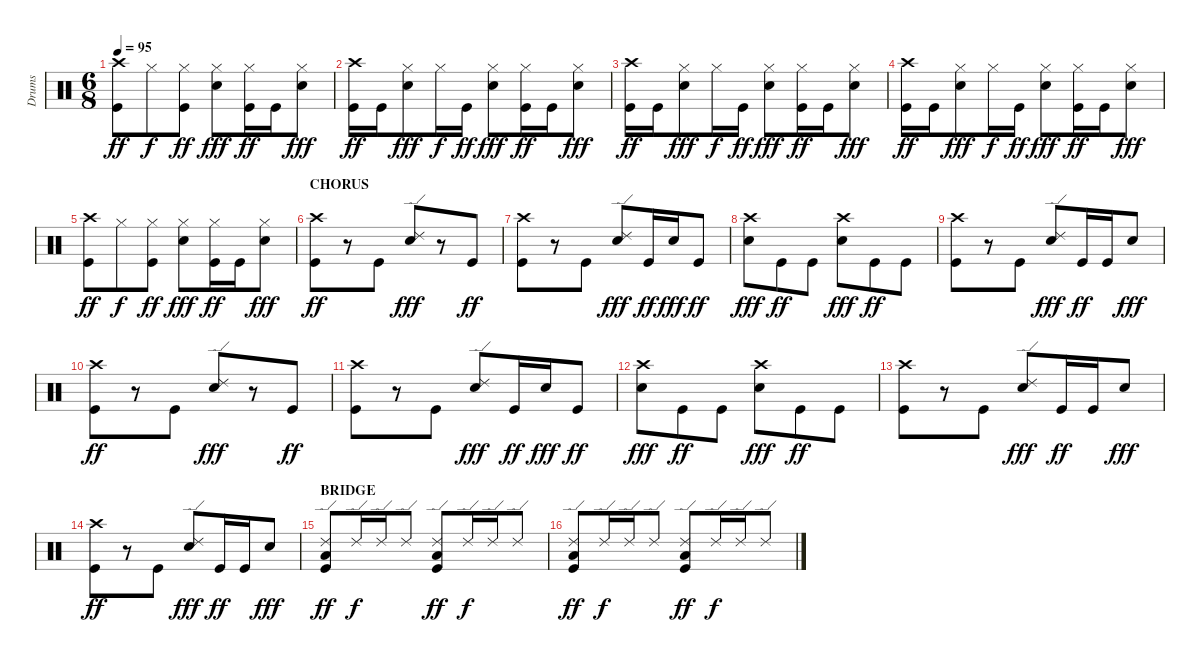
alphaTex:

\track ("Drums" "Drums") {instrument percussion}
\staff {score}
\articulation defaults
\ts (6 8)
\tempo 95
\clef neutral
\ks c
("Crash high (hit)" "Kick (hit)").8{dy ff} "Hi-Hat (closed)".8{dy f} ("Hi-Hat (closed)" "Kick (hit)").8{dy ff} ("Hi-Hat (closed)" "Electric Snare (hit)").8{dy fff} ("Hi-Hat (closed)" "Kick (hit)").16{dy ff} "Kick (hit)".16 ("Hi-Hat (closed)" "Electric Snare (hit)").8{dy fff} |
("Crash high (hit)" "Kick (hit)").16{dy ff} "Kick (hit)".16 ("Hi-Hat (closed)" "Electric Snare (hit)").8{dy fff} "Hi-Hat (closed)".16{dy f} "Kick (hit)".16{dy ff} ("Hi-Hat (closed)" "Electric Snare (hit)").8{dy fff} ("Hi-Hat (closed)" "Kick (hit)").16{dy ff} "Kick (hit)".16 ("Hi-Hat (closed)" "Electric Snare (hit)").8{dy fff} |
("Crash high (hit)" "Kick (hit)").16{dy ff} "Kick (hit)".16 ("Hi-Hat (closed)" "Electric Snare (hit)").8{dy fff} "Hi-Hat (closed)".16{dy f} "Kick (hit)".16{dy ff} ("Hi-Hat (closed)" "Electric Snare (hit)").8{dy fff} ("Hi-Hat (closed)" "Kick (hit)").16{dy ff} "Kick (hit)".16 ("Hi-Hat (closed)" "Electric Snare (hit)").8{dy fff} |
("Crash high (hit)" "Kick (hit)").16{dy ff} "Kick (hit)".16 ("Hi-Hat (closed)" "Electric Snare (hit)").8{dy fff} "Hi-Hat (closed)".16{dy f} "Kick (hit)".16{dy ff} ("Hi-Hat (closed)" "Electric Snare (hit)").8{dy fff} ("Hi-Hat (closed)" "Kick (hit)").16{dy ff} "Kick (hit)".16 ("Hi-Hat (closed)" "Electric Snare (hit)").8{dy fff} |
("Crash high (hit)" "Kick (hit)").8{dy ff} "Hi-Hat (closed)".8{dy f} ("Hi-Hat (closed)" "Kick (hit)").8{dy ff} ("Hi-Hat (closed)" "Electric Snare (hit)").8{dy fff} ("Hi-Hat (closed)" "Kick (hit)").16{dy ff} "Kick (hit)".16 ("Hi-Hat (closed)" "Electric Snare (hit)").8{dy fff} |
\section ("" "CHORUS")
("Crash high (hit)" "Kick (hit)").8{dy ff} r.8 "Kick (hit)".8 ("Ride (edge) 2" "Electric Snare (hit)").8{dy fff} r.8 "Kick (hit)".8{dy ff} |
("Crash high (hit)" "Kick (hit)").8 r.8 "Kick (hit)".8 ("Ride (edge) 2" "Electric Snare (hit)").8{dy fff} "Kick (hit)".16{dy ff} "Electric Snare (hit)".16{dy fff} "Kick (hit)".8{dy ff} |
("Crash high (hit)" "Electric Snare (hit)").8{dy fff} "Kick (hit)".8{dy ff} "Kick (hit)".8 ("Crash high (hit)" "Electric Snare (hit)").8{dy fff} "Kick (hit)".8{dy ff} "Kick (hit)".8 |
("Crash high (hit)" "Kick (hit)").8 r.8 "Kick (hit)".8 ("Ride (edge) 2" "Electric Snare (hit)").8{dy fff} "Kick (hit)".16{dy ff} "Kick (hit)".16 "Electric Snare (hit)".8{dy fff} |
("Crash high (hit)" "Kick (hit)").8{dy ff} r.8 "Kick (hit)".8 ("Ride (edge) 2" "Electric Snare (hit)").8{dy fff} r.8 "Kick (hit)".8{dy ff} |
("Crash high (hit)" "Kick (hit)").8 r.8 "Kick (hit)".8 ("Ride (edge) 2" "Electric Snare (hit)").8{dy fff} "Kick (hit)".16{dy ff} "Electric Snare (hit)".16{dy fff} "Kick (hit)".8{dy ff} |
("Crash high (hit)" "Electric Snare (hit)").8{dy fff} "Kick (hit)".8{dy ff} "Kick (hit)".8 ("Crash high (hit)" "Electric Snare (hit)").8{dy fff} "Kick (hit)".8{dy ff} "Kick (hit)".8 |
("Crash high (hit)" "Kick (hit)").8 r.8 "Kick (hit)".8 ("Ride (edge) 2" "Electric Snare (hit)").8{dy fff} "Kick (hit)".16{dy ff} "Kick (hit)".16 "Electric Snare (hit)".8{dy fff} |
("Crash high (hit)" "Kick (hit)").8{dy ff} r.8 "Kick (hit)".8 ("Ride (edge) 2" "Electric Snare (hit)").8{dy fff} "Kick (hit)".16{dy ff} "Kick (hit)".16 "Electric Snare (hit)".8{dy fff} |
\section ("" "BRIDGE")
("Ride (edge) 2" "Low Tom (hit)" "Kick (hit)").8{dy ff} "Ride (edge) 2".16{dy f} "Ride (edge) 2".16 "Ride (edge) 2".8 ("Ride (edge) 2" "Low Tom (hit)" "Kick (hit)").8{dy ff} "Ride (edge) 2".16{dy f} "Ride (edge) 2".16 "Ride (edge) 2".8 |
("Ride (edge) 2" "Low Tom (hit)" "Kick (hit)").8{dy ff} "Ride (edge) 2".16{dy f} "Ride (edge) 2".16 "Ride (edge) 2".8 ("Ride (edge) 2" "Low Tom (hit)" "Kick (hit)").8{dy ff} "Ride (edge) 2".16{dy f} "Ride (edge) 2".16 "Ride (edge) 2".8
